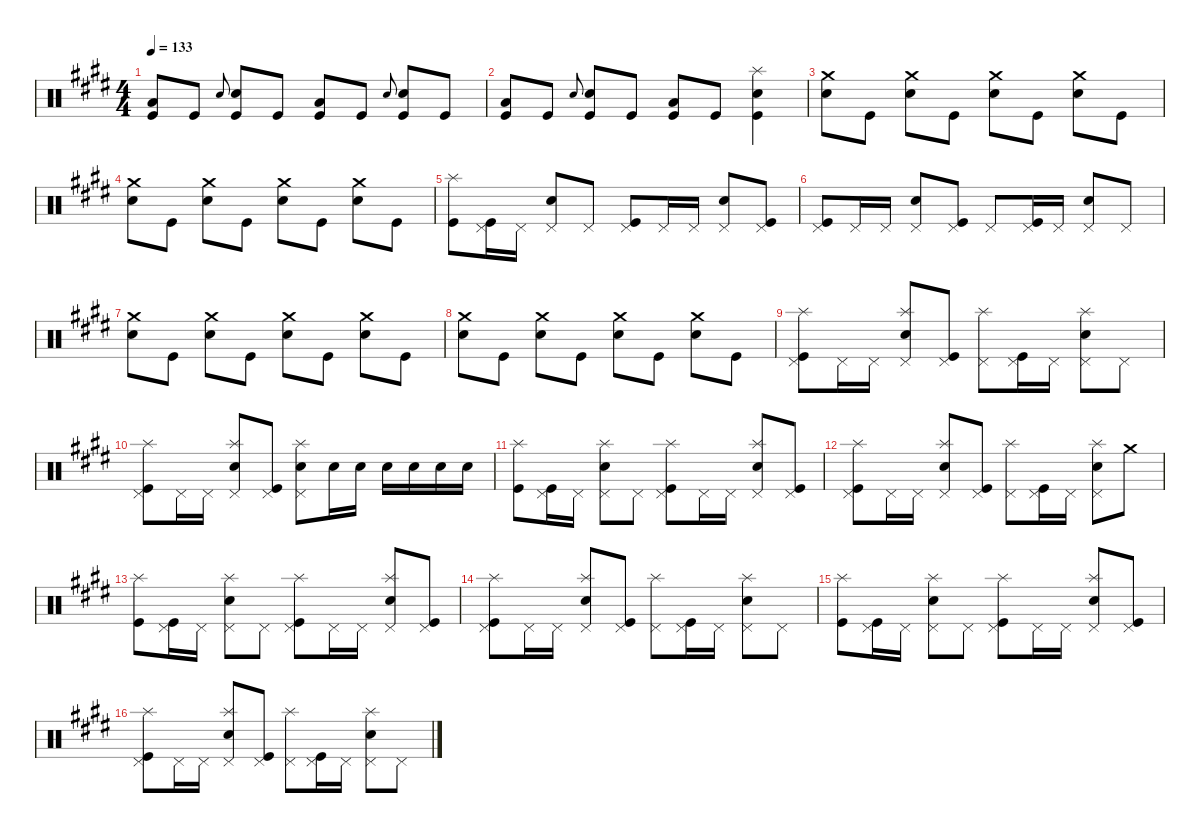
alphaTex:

\defaultSystemsLayout 4
\hideDynamics
\bracketExtendMode nobrackets
\singleTrackTrackNamePolicy hidden
\multiTrackTrackNamePolicy hidden
\firstSystemTrackNameMode fullname
\firstSystemTrackNameOrientation horizontal
\otherSystemsTrackNameOrientation horizontal
\track ("RVP" "drm.") {instrument percussion}
\staff {score}
\articulation defaults
\ts (4 4)
\tempo 133
\clef neutral
\ks e
("Low Floor Tom (hit)"{acc forcenatural} "Kick (hit)"{acc forcenatural}).8{dy f beam Up} "Kick (hit)"{acc forcenatural}.8{dy fff beam Up} "Snare (hit) 2"{acc forcenatural}.8{gr onbeat dy ff beam Up} ("Snare (hit) 2"{acc forcenatural} "Kick (hit)"{acc forcenatural}).8{dy fff beam Up} "Kick (hit)"{acc forcenatural}.8{beam Up} ("Low Floor Tom (hit)"{acc forcenatural} "Kick (hit)"{acc forcenatural}).8{dy f beam Up} "Kick (hit)"{acc forcenatural}.8{dy fff beam Up} "Snare (hit) 2"{acc forcenatural}.8{gr onbeat dy ff beam Up} ("Snare (hit) 2"{acc forcenatural} "Kick (hit)"{acc forcenatural}).8{dy fff beam Up} "Kick (hit)"{acc forcenatural}.8{beam Up} |
("Low Floor Tom (hit)"{acc forcenatural} "Kick (hit)"{acc forcenatural}).8{dy f beam Up} "Kick (hit)"{acc forcenatural}.8{dy fff beam Up} "Snare (hit) 2"{acc forcenatural}.8{gr onbeat dy ff beam Up} ("Snare (hit) 2"{acc forcenatural} "Kick (hit)"{acc forcenatural}).8{dy fff beam Up} "Kick (hit)"{acc forcenatural}.8{beam Up} ("Low Floor Tom (hit)"{acc forcenatural} "Kick (hit)"{acc forcenatural}).8{dy f beam Up} "Kick (hit)"{acc forcenatural}.8{dy fff beam Up} ("Snare (hit) 2"{acc forcenatural} "Splash (hit)"{acc forcenatural} "Kick (hit)"{acc forcenatural}).4{dy f beam Down} |
("Snare (hit) 2"{acc forcenatural} "Crash medium (hit)"{acc forcenatural}).8{dy fff beam Down} "Kick (hit)"{acc forcenatural}.8{beam Down} ("Snare (hit) 2"{acc forcenatural} "Crash medium (hit)"{acc forcenatural}).8{beam Down} "Kick (hit)"{acc forcenatural}.8{beam Down} ("Snare (hit) 2"{acc forcenatural} "Crash medium (hit)"{acc forcenatural}).8{beam Down} "Kick (hit)"{acc forcenatural}.8{beam Down} ("Snare (hit) 2"{acc forcenatural} "Crash medium (hit)"{acc forcenatural}).8{beam Down} "Kick (hit)"{acc forcenatural}.8{beam Down} |
("Snare (hit) 2"{acc forcenatural} "Crash medium (hit)"{acc forcenatural}).8{beam Down} "Kick (hit)"{acc forcenatural}.8{beam Down} ("Snare (hit) 2"{acc forcenatural} "Crash medium (hit)"{acc forcenatural}).8{beam Down} "Kick (hit)"{acc forcenatural}.8{beam Down} ("Snare (hit) 2"{acc forcenatural} "Crash medium (hit)"{acc forcenatural}).8{beam Down} "Kick (hit)"{acc forcenatural}.8{beam Down} ("Snare (hit) 2"{acc forcenatural} "Crash medium (hit)"{acc forcenatural}).8{beam Down} "Kick (hit)"{acc forcenatural}.8{beam Down} |
("Splash (hit)"{acc forcenatural} "Kick (hit)"{acc forcenatural}).8{dy f beam Down} ("Pedal Hi-Hat (hit)"{acc forcenatural} "Kick (hit)"{acc forcenatural}).16{beam Down} "Pedal Hi-Hat (hit)"{acc forcenatural}.16{beam Down} ("Snare (hit) 2"{acc forcenatural} "Pedal Hi-Hat (hit)"{acc forcenatural}).8{dy fff beam Up} "Pedal Hi-Hat (hit)"{acc forcenatural}.8{dy f beam Up} ("Pedal Hi-Hat (hit)"{acc forcenatural} "Kick (hit)"{acc forcenatural}).8{beam Up} "Pedal Hi-Hat (hit)"{acc forcenatural}.16{beam Up} "Pedal Hi-Hat (hit)"{acc forcenatural}.16{beam Up} ("Snare (hit) 2"{acc forcenatural} "Pedal Hi-Hat (hit)"{acc forcenatural}).8{dy fff beam Up} ("Pedal Hi-Hat (hit)"{acc forcenatural} "Kick (hit)"{acc forcenatural}).8{dy f beam Up} |
("Pedal Hi-Hat (hit)"{acc forcenatural} "Kick (hit)"{acc forcenatural}).8{beam Up} "Pedal Hi-Hat (hit)"{acc forcenatural}.16{beam Up} "Pedal Hi-Hat (hit)"{acc forcenatural}.16{beam Up} ("Snare (hit) 2"{acc forcenatural} "Pedal Hi-Hat (hit)"{acc forcenatural}).8{dy fff beam Up} ("Pedal Hi-Hat (hit)"{acc forcenatural} "Kick (hit)"{acc forcenatural}).8{dy f beam Up} "Pedal Hi-Hat (hit)"{acc forcenatural}.8{beam Up} ("Pedal Hi-Hat (hit)"{acc forcenatural} "Kick (hit)"{acc forcenatural}).16{beam Up} "Pedal Hi-Hat (hit)"{acc forcenatural}.16{beam Up} ("Snare (hit) 2"{acc forcenatural} "Pedal Hi-Hat (hit)"{acc forcenatural}).8{dy fff beam Up} "Pedal Hi-Hat (hit)"{acc forcenatural}.8{dy f beam Up} |
("Snare (hit) 2"{acc forcenatural} "Crash medium (hit)"{acc forcenatural}).8{dy fff beam Down} "Kick (hit)"{acc forcenatural}.8{beam Down} ("Snare (hit) 2"{acc forcenatural} "Crash medium (hit)"{acc forcenatural}).8{beam Down} "Kick (hit)"{acc forcenatural}.8{beam Down} ("Snare (hit) 2"{acc forcenatural} "Crash medium (hit)"{acc forcenatural}).8{beam Down} "Kick (hit)"{acc forcenatural}.8{beam Down} ("Snare (hit) 2"{acc forcenatural} "Crash medium (hit)"{acc forcenatural}).8{beam Down} "Kick (hit)"{acc forcenatural}.8{beam Down} |
("Snare (hit) 2"{acc forcenatural} "Crash medium (hit)"{acc forcenatural}).8{beam Down} "Kick (hit)"{acc forcenatural}.8{beam Down} ("Snare (hit) 2"{acc forcenatural} "Crash medium (hit)"{acc forcenatural}).8{beam Down} "Kick (hit)"{acc forcenatural}.8{beam Down} ("Snare (hit) 2"{acc forcenatural} "Crash medium (hit)"{acc forcenatural}).8{beam Down} "Kick (hit)"{acc forcenatural}.8{beam Down} ("Snare (hit) 2"{acc forcenatural} "Crash medium (hit)"{acc forcenatural}).8{beam Down} "Kick (hit)"{acc forcenatural}.8{beam Down} |
("Pedal Hi-Hat (hit)"{acc forcenatural} "Splash (hit)"{acc forcenatural} "Kick (hit)"{acc forcenatural}).8{dy f beam Down} "Pedal Hi-Hat (hit)"{acc forcenatural}.16{beam Down} "Pedal Hi-Hat (hit)"{acc forcenatural}.16{beam Down} ("Snare (hit) 2"{acc forcenatural} "Pedal Hi-Hat (hit)"{acc forcenatural} "Splash (hit)"{acc forcenatural}).8{dy fff beam Up} ("Pedal Hi-Hat (hit)"{acc forcenatural} "Kick (hit)"{acc forcenatural}).8{dy f beam Up} ("Pedal Hi-Hat (hit)"{acc forcenatural} "Splash (hit)"{acc forcenatural}).8{beam Down} ("Pedal Hi-Hat (hit)"{acc forcenatural} "Kick (hit)"{acc forcenatural}).16{beam Down} "Pedal Hi-Hat (hit)"{acc forcenatural}.16{beam Down} ("Snare (hit) 2"{acc forcenatural} "Pedal Hi-Hat (hit)"{acc forcenatural} "Splash (hit)"{acc forcenatural}).8{dy fff beam Down} "Pedal Hi-Hat (hit)"{acc forcenatural}.8{dy f beam Down} |
("Pedal Hi-Hat (hit)"{acc forcenatural} "Splash (hit)"{acc forcenatural} "Kick (hit)"{acc forcenatural}).8{beam Down} "Pedal Hi-Hat (hit)"{acc forcenatural}.16{beam Down} "Pedal Hi-Hat (hit)"{acc forcenatural}.16{beam Down} ("Snare (hit) 2"{acc forcenatural} "Pedal Hi-Hat (hit)"{acc forcenatural} "Splash (hit)"{acc forcenatural}).8{dy fff beam Up} ("Pedal Hi-Hat (hit)"{acc forcenatural} "Kick (hit)"{acc forcenatural}).8{dy f beam Up} ("Snare (hit) 2"{acc forcenatural} "Pedal Hi-Hat (hit)"{acc forcenatural} "Splash (hit)"{acc forcenatural}).8{dy fff beam Down} "Snare (hit) 2"{acc forcenatural}.16{beam Down} "Snare (hit) 2"{acc forcenatural}.16{beam Down} "Snare (hit) 2"{acc forcenatural}.16{beam Down} "Snare (hit) 2"{acc forcenatural}.16{beam Down} "Snare (hit) 2"{acc forcenatural}.16{beam Down} "Snare (hit) 2"{acc forcenatural}.16{beam Down} |
("Splash (hit)"{acc forcenatural} "Kick (hit)"{acc forcenatural}).8{dy f beam Down} ("Pedal Hi-Hat (hit)"{acc forcenatural} "Kick (hit)"{acc forcenatural}).16{beam Down} "Pedal Hi-Hat (hit)"{acc forcenatural}.16{beam Down} ("Snare (hit) 2"{acc forcenatural} "Pedal Hi-Hat (hit)"{acc forcenatural} "Splash (hit)"{acc forcenatural}).8{dy fff beam Down} "Pedal Hi-Hat (hit)"{acc forcenatural}.8{dy f beam Down} ("Pedal Hi-Hat (hit)"{acc forcenatural} "Splash (hit)"{acc forcenatural} "Kick (hit)"{acc forcenatural}).8{beam Down} "Pedal Hi-Hat (hit)"{acc forcenatural}.16{beam Down} "Pedal Hi-Hat (hit)"{acc forcenatural}.16{beam Down} ("Snare (hit) 2"{acc forcenatural} "Pedal Hi-Hat (hit)"{acc forcenatural} "Splash (hit)"{acc forcenatural}).8{dy fff beam Up} ("Pedal Hi-Hat (hit)"{acc forcenatural} "Kick (hit)"{acc forcenatural}).8{dy f beam Up} |
("Pedal Hi-Hat (hit)"{acc forcenatural} "Splash (hit)"{acc forcenatural} "Kick (hit)"{acc forcenatural}).8{beam Down} "Pedal Hi-Hat (hit)"{acc forcenatural}.16{beam Down} "Pedal Hi-Hat (hit)"{acc forcenatural}.16{beam Down} ("Snare (hit) 2"{acc forcenatural} "Pedal Hi-Hat (hit)"{acc forcenatural} "Splash (hit)"{acc forcenatural}).8{dy fff beam Up} ("Pedal Hi-Hat (hit)"{acc forcenatural} "Kick (hit)"{acc forcenatural}).8{dy f beam Up} ("Pedal Hi-Hat (hit)"{acc forcenatural} "Splash (hit)"{acc forcenatural}).8{beam Down} ("Pedal Hi-Hat (hit)"{acc forcenatural} "Kick (hit)"{acc forcenatural}).16{beam Down} "Pedal Hi-Hat (hit)"{acc forcenatural}.16{beam Down} ("Snare (hit) 2"{acc forcenatural} "Pedal Hi-Hat (hit)"{acc forcenatural} "Splash (hit)"{acc forcenatural}).8{dy fff beam Down} "Crash medium (hit)"{acc forcenatural}.8{dy f beam Down} |
("Splash (hit)"{acc forcenatural} "Kick (hit)"{acc forcenatural}).8{beam Down} ("Pedal Hi-Hat (hit)"{acc forcenatural} "Kick (hit)"{acc forcenatural}).16{beam Down} "Pedal Hi-Hat (hit)"{acc forcenatural}.16{beam Down} ("Snare (hit) 2"{acc forcenatural} "Pedal Hi-Hat (hit)"{acc forcenatural} "Splash (hit)"{acc forcenatural}).8{dy fff beam Down} "Pedal Hi-Hat (hit)"{acc forcenatural}.8{dy f beam Down} ("Pedal Hi-Hat (hit)"{acc forcenatural} "Splash (hit)"{acc forcenatural} "Kick (hit)"{acc forcenatural}).8{beam Down} "Pedal Hi-Hat (hit)"{acc forcenatural}.16{beam Down} "Pedal Hi-Hat (hit)"{acc forcenatural}.16{beam Down} ("Snare (hit) 2"{acc forcenatural} "Pedal Hi-Hat (hit)"{acc forcenatural} "Splash (hit)"{acc forcenatural}).8{dy fff beam Up} ("Pedal Hi-Hat (hit)"{acc forcenatural} "Kick (hit)"{acc forcenatural}).8{dy f beam Up} |
("Pedal Hi-Hat (hit)"{acc forcenatural} "Splash (hit)"{acc forcenatural} "Kick (hit)"{acc forcenatural}).8{beam Down} "Pedal Hi-Hat (hit)"{acc forcenatural}.16{beam Down} "Pedal Hi-Hat (hit)"{acc forcenatural}.16{beam Down} ("Snare (hit) 2"{acc forcenatural} "Pedal Hi-Hat (hit)"{acc forcenatural} "Splash (hit)"{acc forcenatural}).8{dy fff beam Up} ("Pedal Hi-Hat (hit)"{acc forcenatural} "Kick (hit)"{acc forcenatural}).8{dy f beam Up} ("Pedal Hi-Hat (hit)"{acc forcenatural} "Splash (hit)"{acc forcenatural}).8{beam Down} ("Pedal Hi-Hat (hit)"{acc forcenatural} "Kick (hit)"{acc forcenatural}).16{beam Down} "Pedal Hi-Hat (hit)"{acc forcenatural}.16{beam Down} ("Snare (hit) 2"{acc forcenatural} "Pedal Hi-Hat (hit)"{acc forcenatural} "Splash (hit)"{acc forcenatural}).8{dy fff beam Down} "Pedal Hi-Hat (hit)"{acc forcenatural}.8{dy f beam Down} |
("Splash (hit)"{acc forcenatural} "Kick (hit)"{acc forcenatural}).8{beam Down} ("Pedal Hi-Hat (hit)"{acc forcenatural} "Kick (hit)"{acc forcenatural}).16{beam Down} "Pedal Hi-Hat (hit)"{acc forcenatural}.16{beam Down} ("Snare (hit) 2"{acc forcenatural} "Pedal Hi-Hat (hit)"{acc forcenatural} "Splash (hit)"{acc forcenatural}).8{dy fff beam Down} "Pedal Hi-Hat (hit)"{acc forcenatural}.8{dy f beam Down} ("Pedal Hi-Hat (hit)"{acc forcenatural} "Splash (hit)"{acc forcenatural} "Kick (hit)"{acc forcenatural}).8{beam Down} "Pedal Hi-Hat (hit)"{acc forcenatural}.16{beam Down} "Pedal Hi-Hat (hit)"{acc forcenatural}.16{beam Down} ("Snare (hit) 2"{acc forcenatural} "Pedal Hi-Hat (hit)"{acc forcenatural} "Splash (hit)"{acc forcenatural}).8{dy fff beam Up} ("Pedal Hi-Hat (hit)"{acc forcenatural} "Kick (hit)"{acc forcenatural}).8{dy f beam Up} |
("Pedal Hi-Hat (hit)"{acc forcenatural} "Splash (hit)"{acc forcenatural} "Kick (hit)"{acc forcenatural}).8{beam Down} "Pedal Hi-Hat (hit)"{acc forcenatural}.16{beam Down} "Pedal Hi-Hat (hit)"{acc forcenatural}.16{beam Down} ("Snare (hit) 2"{acc forcenatural} "Pedal Hi-Hat (hit)"{acc forcenatural} "Splash (hit)"{acc forcenatural}).8{dy fff beam Up} ("Pedal Hi-Hat (hit)"{acc forcenatural} "Kick (hit)"{acc forcenatural}).8{dy f beam Up} ("Pedal Hi-Hat (hit)"{acc forcenatural} "Splash (hit)"{acc forcenatural}).8{beam Down} ("Pedal Hi-Hat (hit)"{acc forcenatural} "Kick (hit)"{acc forcenatural}).16{beam Down} "Pedal Hi-Hat (hit)"{acc forcenatural}.16{beam Down} ("Snare (hit) 2"{acc forcenatural} "Pedal Hi-Hat (hit)"{acc forcenatural} "Splash (hit)"{acc forcenatural}).8{dy fff beam Down} "Pedal Hi-Hat (hit)"{acc forcenatural}.8{dy f beam Down}
